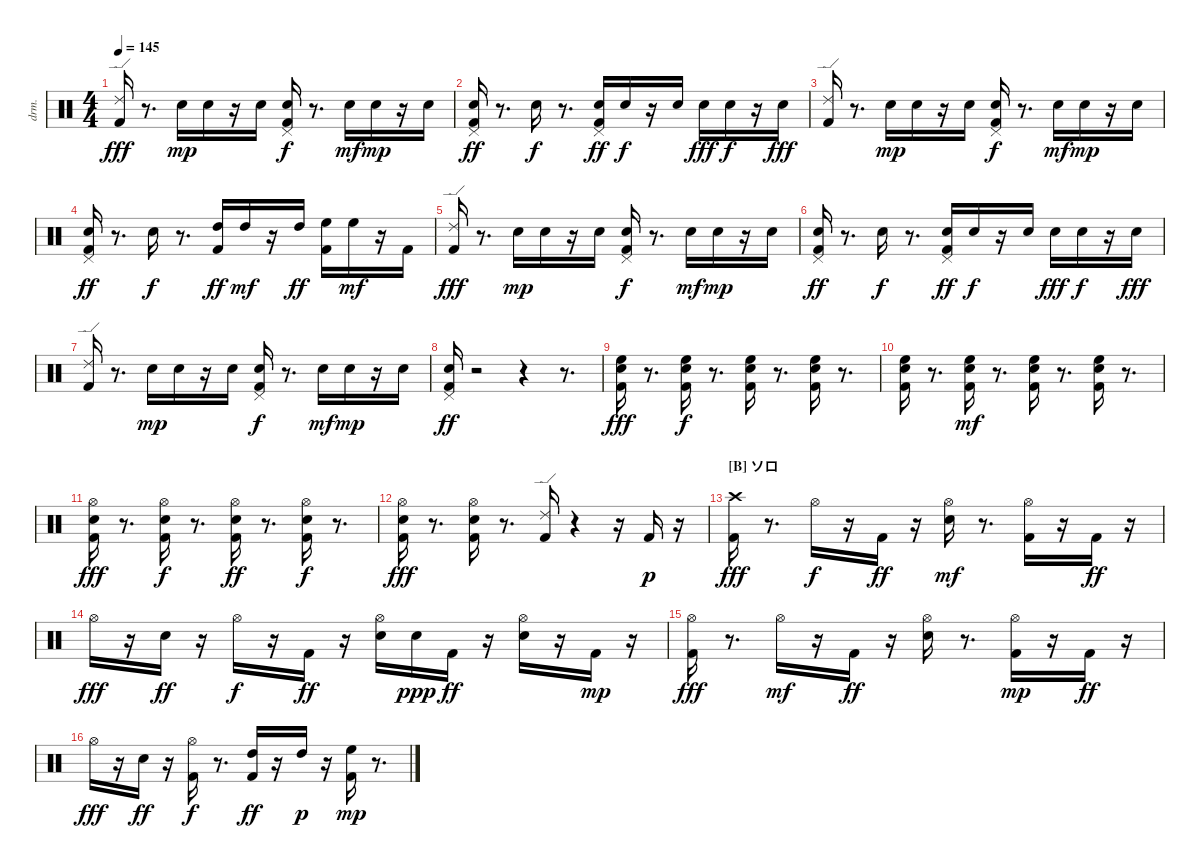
\bracketExtendMode nobrackets
\track ("EZdrummer 3" "drm.") {instrument percussion}
\staff {score}
\articulation defaults
\ts (4 4)
\tempo 145
\clef neutral
\ks aminor
("Kick (hit) 2" "Ride (edge) 2").16{dy fff} r.8{d} "Snare (hit) 2".16{dy mp} "Snare (hit) 2".16 r.16 "Snare (hit) 2".16 ("Kick (hit) 2" "Snare (hit) 2" "Pedal Hi-Hat (hit)"{acc #}).16{dy f} r.8{d} "Snare (hit) 2".16{dy mf} "Snare (hit) 2".16{dy mp} r.16 "Snare (hit) 2".16 |
("Kick (hit) 2" "Snare (hit) 2" "Pedal Hi-Hat (hit)"{acc #}).16{dy ff} r.8{d} "Snare (hit) 2".16{dy f} r.8{d} ("Kick (hit) 2" "Snare (hit) 2" "Pedal Hi-Hat (hit)"{acc #}).16{dy ff} "Snare (hit) 2".16{dy f} r.16 "Snare (hit) 2".16 "Snare (hit) 2".16{dy fff} "Snare (hit) 2".16{dy f} r.16 "Snare (hit) 2".16{dy fff} |
("Kick (hit) 2" "Ride (edge) 2").16 r.8{d} "Snare (hit) 2".16{dy mp} "Snare (hit) 2".16 r.16 "Snare (hit) 2".16 ("Kick (hit) 2" "Snare (hit) 2" "Pedal Hi-Hat (hit)"{acc #}).16{dy f} r.8{d} "Snare (hit) 2".16{dy mf} "Snare (hit) 2".16{dy mp} r.16 "Snare (hit) 2".16 |
("Kick (hit) 2" "Snare (hit) 2" "Pedal Hi-Hat (hit)"{acc #}).16{dy ff} r.8{d} "Snare (hit) 2".16{dy f} r.8{d} ("Kick (hit) 2" "High Tom (hit)").16{dy ff} "High Tom (hit)".16{dy mf} r.16 "High Tom (hit)".16{dy ff} ("Kick (hit) 2" "High Floor Tom (hit)").16 "High Floor Tom (hit)".16{dy mf} r.16 "Kick (hit) 2".16 |
("Kick (hit) 2" "Ride (edge) 2").16{dy fff} r.8{d} "Snare (hit) 2".16{dy mp} "Snare (hit) 2".16 r.16 "Snare (hit) 2".16 ("Kick (hit) 2" "Snare (hit) 2" "Pedal Hi-Hat (hit)"{acc #}).16{dy f} r.8{d} "Snare (hit) 2".16{dy mf} "Snare (hit) 2".16{dy mp} r.16 "Snare (hit) 2".16 |
("Kick (hit) 2" "Snare (hit) 2" "Pedal Hi-Hat (hit)"{acc #}).16{dy ff} r.8{d} "Snare (hit) 2".16{dy f} r.8{d} ("Kick (hit) 2" "Snare (hit) 2" "Pedal Hi-Hat (hit)"{acc #}).16{dy ff} "Snare (hit) 2".16{dy f} r.16 "Snare (hit) 2".16 "Snare (hit) 2".16{dy fff} "Snare (hit) 2".16{dy f} r.16 "Snare (hit) 2".16{dy fff} |
("Kick (hit) 2" "Ride (edge) 2").16 r.8{d} "Snare (hit) 2".16{dy mp} "Snare (hit) 2".16 r.16 "Snare (hit) 2".16 ("Kick (hit) 2" "Snare (hit) 2" "Pedal Hi-Hat (hit)"{acc #}).16{dy f} r.8{d} "Snare (hit) 2".16{dy mf} "Snare (hit) 2".16{dy mp} r.16 "Snare (hit) 2".16 |
("Kick (hit) 2" "Snare (hit) 2" "Pedal Hi-Hat (hit)"{acc #}).16{dy ff} r.2 r.4 r.8{d} |
("Kick (hit) 2" "Snare (hit) 2" "High Floor Tom (hit)").16{dy fff} r.8{d} ("Kick (hit) 2" "Snare (hit) 2" "High Floor Tom (hit)").16{dy f} r.8{d} ("Kick (hit) 2" "Snare (hit) 2" "High Floor Tom (hit)").16 r.8{d} ("Kick (hit) 2" "Snare (hit) 2" "High Floor Tom (hit)").16 r.8{d} |
("Kick (hit) 2" "Snare (hit) 2" "High Floor Tom (hit)").16 r.8{d} ("Kick (hit) 2" "Snare (hit) 2" "High Floor Tom (hit)").16{dy mf} r.8{d} ("Kick (hit) 2" "Snare (hit) 2" "High Floor Tom (hit)").16 r.8{d} ("Kick (hit) 2" "Snare (hit) 2" "High Floor Tom (hit)").16 r.8{d} |
("Kick (hit) 2" "Snare (hit) 2" "Hi-Hat (open)"{acc #}).16{dy fff} r.8{d} ("Kick (hit) 2" "Snare (hit) 2" "Hi-Hat (open)"{acc #}).16{dy f} r.8{d} ("Kick (hit) 2" "Snare (hit) 2" "Hi-Hat (open)"{acc #}).16{dy ff} r.8{d} ("Kick (hit) 2" "Snare (hit) 2" "Hi-Hat (open)"{acc #}).16{dy f} r.8{d} |
("Kick (hit) 2" "Snare (hit) 2" "Hi-Hat (open)"{acc #}).16{dy fff} r.8{d} ("Kick (hit) 2" "Snare (hit) 2" "Hi-Hat (open)"{acc #}).16 r.8{d} ("Kick (hit) 2" "Ride (edge) 2").16 r.4 r.16 "Kick (hit) 2".16{dy p} r.16 |
\section ("B" "ソロ")
("Kick (hit) 2" "Crash high (hit)"{acc #}).16{dy fff} r.8{d} "Hi-Hat (open)"{acc #}.16{dy f} r.16 "Kick (hit) 2".16{dy ff} r.16 ("Snare (hit) 2" "Hi-Hat (open)"{acc #}).16{dy mf} r.8{d} ("Kick (hit) 2" "Hi-Hat (open)"{acc #}).16 r.16 "Kick (hit) 2".16{dy ff} r.16 |
"Hi-Hat (open)"{acc #}.16{dy fff} r.16 "Snare (hit) 2".16{dy ff} r.16 "Hi-Hat (open)"{acc #}.16{dy f} r.16 "Kick (hit) 2".16{dy ff} r.16 ("Snare (hit) 2" "Hi-Hat (open)"{acc #}).16 "Snare (hit) 2".16{dy ppp} "Kick (hit) 2".16{dy ff} r.16 ("Snare (hit) 2" "Hi-Hat (open)"{acc #}).16 r.16 "Kick (hit) 2".16{dy mp} r.16 |
("Kick (hit) 2" "Hi-Hat (open)"{acc #}).16{dy fff} r.8{d} "Hi-Hat (open)"{acc #}.16{dy mf} r.16 "Kick (hit) 2".16{dy ff} r.16 ("Snare (hit) 2" "Hi-Hat (open)"{acc #}).16 r.8{d} ("Kick (hit) 2" "Hi-Hat (open)"{acc #}).16{dy mp} r.16 "Kick (hit) 2".16{dy ff} r.16 |
"Hi-Hat (open)"{acc #}.16{dy fff} r.16 "Snare (hit) 2".16{dy ff} r.16 ("Kick (hit) 2" "Hi-Hat (open)"{acc #}).16{dy f} r.8{d} ("Kick (hit) 2" "High Tom (hit)").16{dy ff} r.16 "High Tom (hit)".16{dy p} r.16 ("Kick (hit) 2" "High Floor Tom (hit)").16{dy mp} r.8{d}
